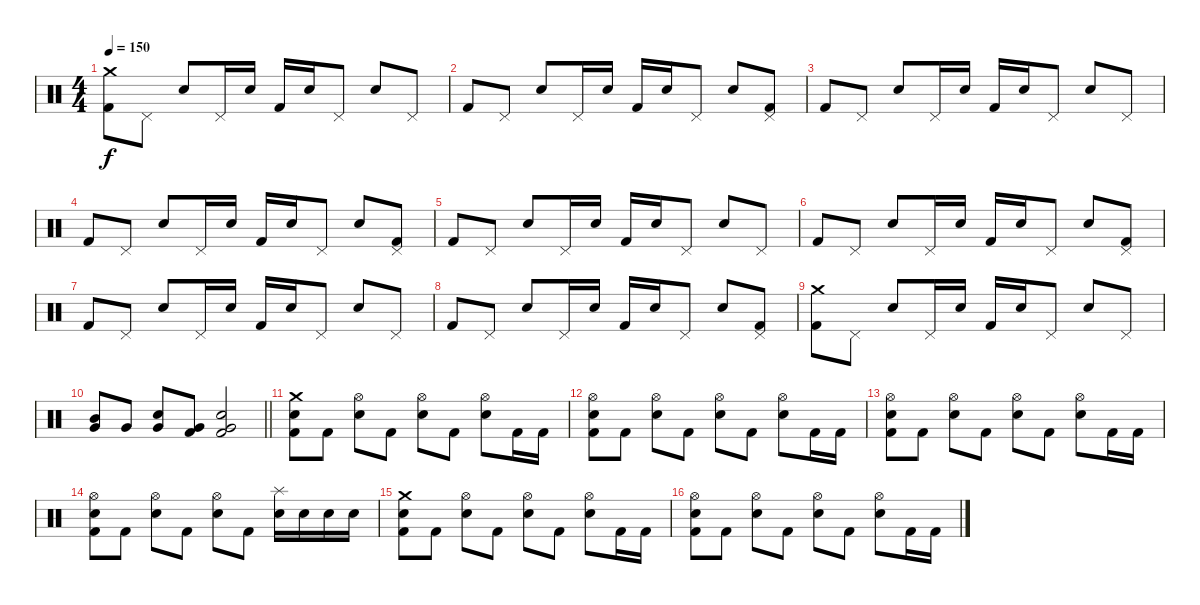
\track "" {instrument percussion}
\staff {score}
\articulation defaults
\ts (4 4)
\tempo 150
\clef neutral
\ks c
("Crash medium (hit)" "Kick (hit) 2").8{dy f} "Pedal Hi-Hat (hit)".8 "Snare (hit) 2".8 "Pedal Hi-Hat (hit)".16 "Snare (hit) 2".16 "Kick (hit) 2".16 "Snare (hit) 2".16 "Pedal Hi-Hat (hit)".8 "Snare (hit) 2".8 "Pedal Hi-Hat (hit)".8 |
"Kick (hit) 2".8 "Pedal Hi-Hat (hit)".8 "Snare (hit) 2".8 "Pedal Hi-Hat (hit)".16 "Snare (hit) 2".16 "Kick (hit) 2".16 "Snare (hit) 2".16 "Pedal Hi-Hat (hit)".8 "Snare (hit) 2".8 ("Pedal Hi-Hat (hit)" "Kick (hit) 2").8 |
"Kick (hit) 2".8 "Pedal Hi-Hat (hit)".8 "Snare (hit) 2".8 "Pedal Hi-Hat (hit)".16 "Snare (hit) 2".16 "Kick (hit) 2".16 "Snare (hit) 2".16 "Pedal Hi-Hat (hit)".8 "Snare (hit) 2".8 "Pedal Hi-Hat (hit)".8 |
"Kick (hit) 2".8 "Pedal Hi-Hat (hit)".8 "Snare (hit) 2".8 "Pedal Hi-Hat (hit)".16 "Snare (hit) 2".16 "Kick (hit) 2".16 "Snare (hit) 2".16 "Pedal Hi-Hat (hit)".8 "Snare (hit) 2".8 ("Pedal Hi-Hat (hit)" "Kick (hit) 2").8 |
"Kick (hit) 2".8 "Pedal Hi-Hat (hit)".8 "Snare (hit) 2".8 "Pedal Hi-Hat (hit)".16 "Snare (hit) 2".16 "Kick (hit) 2".16 "Snare (hit) 2".16 "Pedal Hi-Hat (hit)".8 "Snare (hit) 2".8 "Pedal Hi-Hat (hit)".8 |
"Kick (hit) 2".8 "Pedal Hi-Hat (hit)".8 "Snare (hit) 2".8 "Pedal Hi-Hat (hit)".16 "Snare (hit) 2".16 "Kick (hit) 2".16 "Snare (hit) 2".16 "Pedal Hi-Hat (hit)".8 "Snare (hit) 2".8 ("Pedal Hi-Hat (hit)" "Kick (hit) 2").8 |
"Kick (hit) 2".8 "Pedal Hi-Hat (hit)".8 "Snare (hit) 2".8 "Pedal Hi-Hat (hit)".16 "Snare (hit) 2".16 "Kick (hit) 2".16 "Snare (hit) 2".16 "Pedal Hi-Hat (hit)".8 "Snare (hit) 2".8 "Pedal Hi-Hat (hit)".8 |
"Kick (hit) 2".8 "Pedal Hi-Hat (hit)".8 "Snare (hit) 2".8 "Pedal Hi-Hat (hit)".16 "Snare (hit) 2".16 "Kick (hit) 2".16 "Snare (hit) 2".16 "Pedal Hi-Hat (hit)".8 "Snare (hit) 2".8 ("Pedal Hi-Hat (hit)" "Kick (hit) 2").8 |
("Crash medium (hit)" "Kick (hit) 2").8 "Pedal Hi-Hat (hit)".8 "Snare (hit) 2".8 "Pedal Hi-Hat (hit)".16 "Snare (hit) 2".16 "Kick (hit) 2".16 "Snare (hit) 2".16 "Pedal Hi-Hat (hit)".8 "Snare (hit) 2".8 "Pedal Hi-Hat (hit)".8 |
\barLineRight lightlight
("Mid Tom (hit)" "Very Low Tom (hit)").8 "Very Low Tom (hit)".8 ("Snare (hit) 2" "Very Low Tom (hit)").8 ("Very Low Tom (hit)" "Kick (hit) 2").8 ("Snare (hit) 2" "Very Low Tom (hit)" "Kick (hit) 2").2 |
("Crash medium (hit)" "Snare (hit) 2" "Kick (hit) 2").8 "Kick (hit) 2".8 ("Hi-Hat (open)" "Snare (hit) 2").8 "Kick (hit) 2".8 ("Hi-Hat (open)" "Snare (hit) 2").8 "Kick (hit) 2".8 ("Hi-Hat (open)" "Snare (hit) 2").8 "Kick (hit) 2".16 "Kick (hit) 2".16 |
("Hi-Hat (open)" "Snare (hit) 2" "Kick (hit) 2").8 "Kick (hit) 2".8 ("Hi-Hat (open)" "Snare (hit) 2").8 "Kick (hit) 2".8 ("Hi-Hat (open)" "Snare (hit) 2").8 "Kick (hit) 2".8 ("Hi-Hat (open)" "Snare (hit) 2").8 "Kick (hit) 2".16 "Kick (hit) 2".16 |
("Hi-Hat (open)" "Snare (hit) 2" "Kick (hit) 2").8 "Kick (hit) 2".8 ("Hi-Hat (open)" "Snare (hit) 2").8 "Kick (hit) 2".8 ("Hi-Hat (open)" "Snare (hit) 2").8 "Kick (hit) 2".8 ("Hi-Hat (open)" "Snare (hit) 2").8 "Kick (hit) 2".16 "Kick (hit) 2".16 |
("Hi-Hat (open)" "Snare (hit) 2" "Kick (hit) 2").8 "Kick (hit) 2".8 ("Hi-Hat (open)" "Snare (hit) 2").8 "Kick (hit) 2".8 ("Hi-Hat (open)" "Snare (hit) 2").8 "Kick (hit) 2".8 ("Splash (hit)" "Snare (hit) 2").16 "Snare (hit) 2".16 "Snare (hit) 2".16 "Snare (hit) 2".16 |
("Crash medium (hit)" "Snare (hit) 2" "Kick (hit) 2").8 "Kick (hit) 2".8 ("Hi-Hat (open)" "Snare (hit) 2").8 "Kick (hit) 2".8 ("Hi-Hat (open)" "Snare (hit) 2").8 "Kick (hit) 2".8 ("Hi-Hat (open)" "Snare (hit) 2").8 "Kick (hit) 2".16 "Kick (hit) 2".16 |
("Hi-Hat (open)" "Snare (hit) 2" "Kick (hit) 2").8 "Kick (hit) 2".8 ("Hi-Hat (open)" "Snare (hit) 2").8 "Kick (hit) 2".8 ("Hi-Hat (open)" "Snare (hit) 2").8 "Kick (hit) 2".8 ("Hi-Hat (open)" "Snare (hit) 2").8 "Kick (hit) 2".16 "Kick (hit) 2".16
